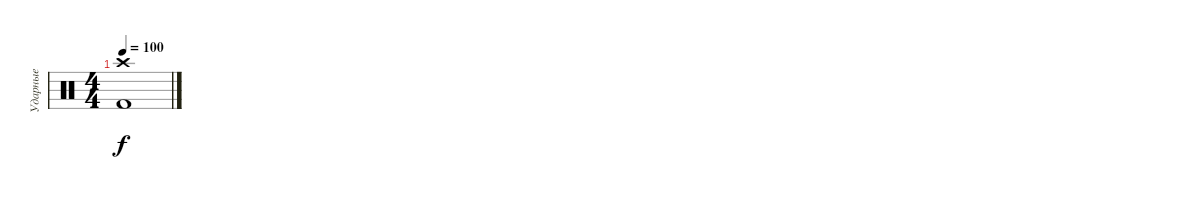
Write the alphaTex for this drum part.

\track ("Ударные" "Ударные") {instrument percussion}
\staff {score}
\articulation defaults
\ts (4 4)
\tempo 100
\clef neutral
\ks c
("Crash high (hit)" "Kick (hit) 2").1{dy f}
